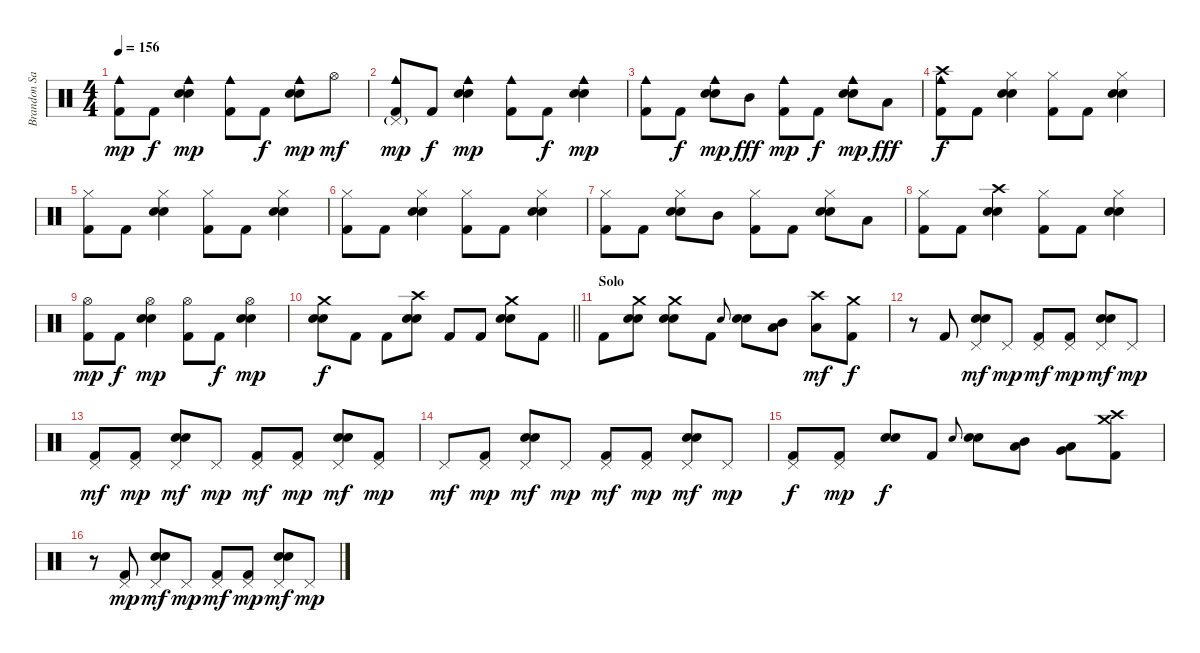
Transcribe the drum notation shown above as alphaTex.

\track ("Brandon Saller" "Brandon Sa") {instrument percussion}
\staff {score}
\articulation defaults
\ts (4 4)
\tempo 156
\clef neutral
\ks c
("Cowbell medium (hit)" "Kick (hit) 2").8{dy mp} "Kick (hit) 2".8{dy f} ("Cowbell medium (hit)" "Snare (hit) 2" "Electric Snare (hit)").4{dy mp} ("Cowbell medium (hit)" "Kick (hit) 2").8 "Kick (hit) 2".8{dy f} ("Cowbell medium (hit)" "Snare (hit) 2" "Electric Snare (hit)").8{dy mp} "Hi-Hat (open)".8{dy mf} |
("Cowbell medium (hit)" "Pedal Hi-Hat (hit)"{g} "Kick (hit) 2").8{dy mp} "Kick (hit) 2".8{dy f} ("Cowbell medium (hit)" "Snare (hit) 2" "Electric Snare (hit)").4{dy mp} ("Cowbell medium (hit)" "Kick (hit) 2").8 "Kick (hit) 2".8{dy f} ("Cowbell medium (hit)" "Snare (hit) 2" "Electric Snare (hit)").4{dy mp} |
("Cowbell medium (hit)" "Kick (hit) 2").8 "Kick (hit) 2".8{dy f} ("Cowbell medium (hit)" "Snare (hit) 2" "Electric Snare (hit)").8{dy mp} "Mid Tom (hit)".8{dy fff} ("Cowbell medium (hit)" "Kick (hit) 2").8{dy mp} "Kick (hit) 2".8{dy f} ("Cowbell medium (hit)" "Snare (hit) 2" "Electric Snare (hit)").8{dy mp} "Low Tom (hit)".8{dy fff} |
("Crash high (hit)" "Cowbell medium (hit)" "Kick (hit) 2").8{dy f} "Kick (hit) 2".8 ("Hi-Hat (closed)" "Snare (hit) 2" "Electric Snare (hit)").4 ("Hi-Hat (closed)" "Kick (hit) 2").8 "Kick (hit) 2".8 ("Hi-Hat (closed)" "Snare (hit) 2" "Electric Snare (hit)").4 |
("Hi-Hat (closed)" "Kick (hit) 2").8 "Kick (hit) 2".8 ("Hi-Hat (closed)" "Snare (hit) 2" "Electric Snare (hit)").4 ("Hi-Hat (closed)" "Kick (hit) 2").8 "Kick (hit) 2".8 ("Hi-Hat (closed)" "Snare (hit) 2" "Electric Snare (hit)").4 |
("Hi-Hat (closed)" "Kick (hit) 2").8 "Kick (hit) 2".8 ("Hi-Hat (closed)" "Snare (hit) 2" "Electric Snare (hit)").4 ("Hi-Hat (closed)" "Kick (hit) 2").8 "Kick (hit) 2".8 ("Hi-Hat (closed)" "Snare (hit) 2" "Electric Snare (hit)").4 |
("Hi-Hat (closed)" "Kick (hit) 2").8 "Kick (hit) 2".8 ("Hi-Hat (closed)" "Snare (hit) 2" "Electric Snare (hit)").8 "Mid Tom (hit)".8 ("Hi-Hat (closed)" "Kick (hit) 2").8 "Kick (hit) 2".8 ("Hi-Hat (closed)" "Snare (hit) 2" "Electric Snare (hit)").8 "Low Tom (hit)".8 |
("Hi-Hat (closed)" "Kick (hit) 2").8 "Kick (hit) 2".8 ("Crash high (hit)" "Snare (hit) 2" "Electric Snare (hit)").4 ("Hi-Hat (closed)" "Kick (hit) 2").8 "Kick (hit) 2".8 ("Hi-Hat (closed)" "Snare (hit) 2" "Electric Snare (hit)").4 |
("Hi-Hat (open)" "Kick (hit) 2").8{dy mp} "Kick (hit) 2".8{dy f} ("Hi-Hat (open)" "Snare (hit) 2" "Electric Snare (hit)").4{dy mp} ("Hi-Hat (open)" "Kick (hit) 2").8 "Kick (hit) 2".8{dy f} ("Hi-Hat (open)" "Snare (hit) 2" "Electric Snare (hit)").4{dy mp} |
\barLineRight lightlight
("Crash medium (hit)" "Snare (hit) 2" "Electric Snare (hit)").8{dy f} "Kick (hit) 2".8 "Kick (hit) 2".8 ("Crash high (hit)" "Snare (hit) 2" "Electric Snare (hit)").8 "Kick (hit) 2".8 "Kick (hit) 2".8 ("Crash medium (hit)" "Snare (hit) 2" "Electric Snare (hit)").8 "Kick (hit) 2".8 |
\section ("" "Solo")
"Kick (hit) 2".8 ("Crash medium (hit)" "Snare (hit) 2" "Electric Snare (hit)").8 ("Crash medium (hit)" "Snare (hit) 2" "Electric Snare (hit)").8 "Kick (hit) 2".8 "Electric Snare (hit)".8{gr onbeat} ("Snare (hit) 2" "Electric Snare (hit)").8 ("Mid Tom (hit)" "Low Tom (hit)").8 ("Crash high (hit)" "Low Tom (hit)").8{dy mf} ("Crash medium (hit)" "Kick (hit) 2").8{dy f} |
r.8 "Kick (hit) 2".8 ("Pedal Hi-Hat (hit)" "Snare (hit) 2" "Electric Snare (hit)").8{dy mf} "Pedal Hi-Hat (hit)".8{dy mp} ("Pedal Hi-Hat (hit)" "Kick (hit) 2").8{dy mf} ("Pedal Hi-Hat (hit)" "Kick (hit) 2").8{dy mp} ("Pedal Hi-Hat (hit)" "Snare (hit) 2" "Electric Snare (hit)").8{dy mf} "Pedal Hi-Hat (hit)".8{dy mp} |
("Pedal Hi-Hat (hit)" "Kick (hit) 2").8{dy mf} ("Pedal Hi-Hat (hit)" "Kick (hit) 2").8{dy mp} ("Pedal Hi-Hat (hit)" "Snare (hit) 2" "Electric Snare (hit)").8{dy mf} "Pedal Hi-Hat (hit)".8{dy mp} ("Pedal Hi-Hat (hit)" "Kick (hit) 2").8{dy mf} ("Pedal Hi-Hat (hit)" "Kick (hit) 2").8{dy mp} ("Pedal Hi-Hat (hit)" "Snare (hit) 2" "Electric Snare (hit)").8{dy mf} ("Pedal Hi-Hat (hit)" "Kick (hit) 2").8{dy mp} |
"Pedal Hi-Hat (hit)".8{dy mf} ("Pedal Hi-Hat (hit)" "Kick (hit) 2").8{dy mp} ("Pedal Hi-Hat (hit)" "Snare (hit) 2" "Electric Snare (hit)").8{dy mf} "Pedal Hi-Hat (hit)".8{dy mp} ("Pedal Hi-Hat (hit)" "Kick (hit) 2").8{dy mf} ("Pedal Hi-Hat (hit)" "Kick (hit) 2").8{dy mp} ("Pedal Hi-Hat (hit)" "Snare (hit) 2" "Electric Snare (hit)").8{dy mf} "Pedal Hi-Hat (hit)".8{dy mp} |
("Pedal Hi-Hat (hit)" "Kick (hit) 2").8{dy f} ("Pedal Hi-Hat (hit)" "Kick (hit) 2").8{dy mp} ("Snare (hit) 2" "Electric Snare (hit)").8{dy f} "Kick (hit) 2".8 "Electric Snare (hit)".8{gr onbeat} ("Snare (hit) 2" "Electric Snare (hit)").8 ("Mid Tom (hit)" "Low Tom (hit)").8 ("Low Tom (hit)" "Very Low Tom (hit)").8 ("Crash high (hit)" "Crash medium (hit)" "Kick (hit) 2").8 |
r.8 ("Pedal Hi-Hat (hit)" "Kick (hit) 2").8{dy mp} ("Pedal Hi-Hat (hit)" "Snare (hit) 2" "Electric Snare (hit)").8{dy mf} "Pedal Hi-Hat (hit)".8{dy mp} ("Pedal Hi-Hat (hit)" "Kick (hit) 2").8{dy mf} ("Pedal Hi-Hat (hit)" "Kick (hit) 2").8{dy mp} ("Pedal Hi-Hat (hit)" "Snare (hit) 2" "Electric Snare (hit)").8{dy mf} "Pedal Hi-Hat (hit)".8{dy mp}
